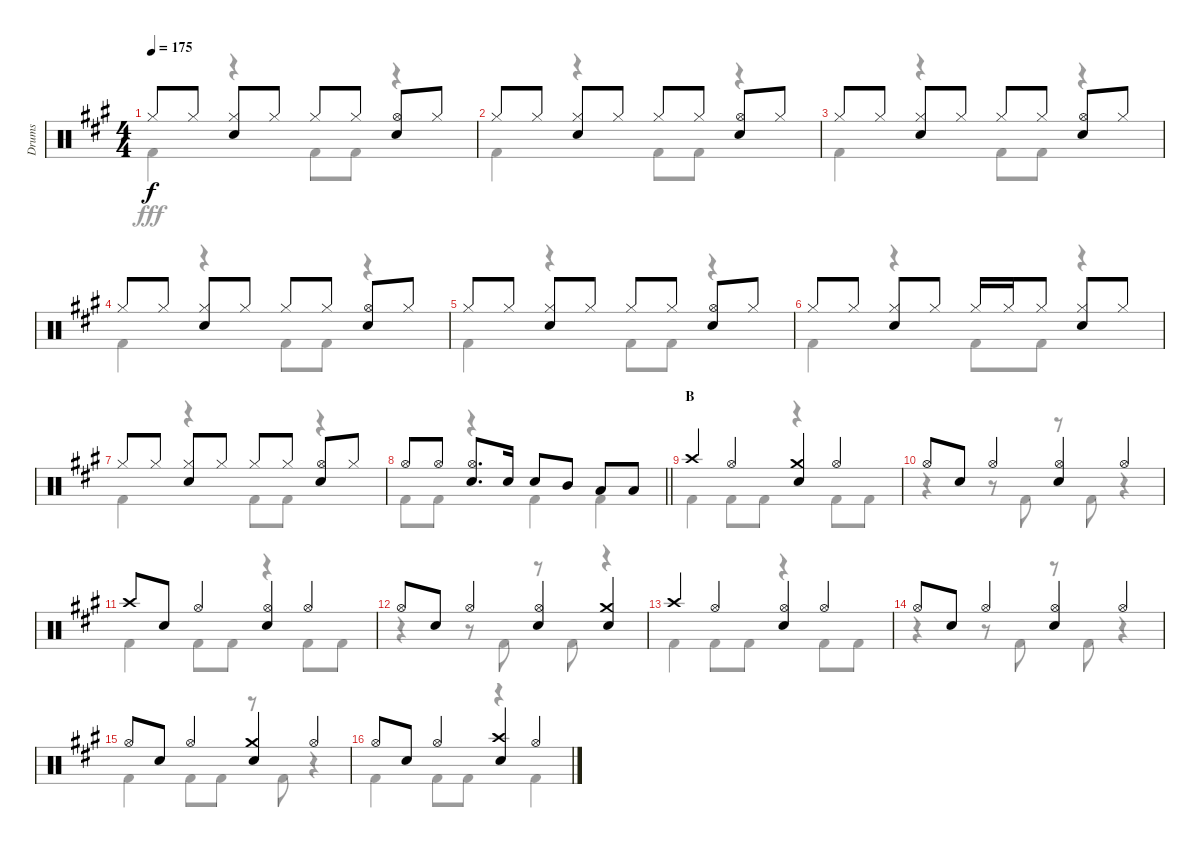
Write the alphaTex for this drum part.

\track ("Drums" "Drums") {instrument percussion}
\staff {score}
\articulation defaults
\voice
\ts (4 4)
\tempo 175
\clef neutral
\ks a "Hi-Hat (closed)".8{dy f} "Hi-Hat (closed)".8
("Hi-Hat (closed)" "Snare (hit) 2").8 "Hi-Hat (closed)".8 "Hi-Hat (closed)".8 "Hi-Hat (closed)".8 ("Hi-Hat (open)" "Snare (hit) 2").8 "Hi-Hat (closed)".8 |
"Hi-Hat (closed)".8 "Hi-Hat (closed)".8 ("Hi-Hat (closed)" "Snare (hit) 2").8 "Hi-Hat (closed)".8 "Hi-Hat (closed)".8 "Hi-Hat (closed)".8 ("Hi-Hat (open)" "Snare (hit) 2").8 "Hi-Hat (closed)".8 |
"Hi-Hat (closed)".8 "Hi-Hat (closed)".8 ("Hi-Hat (closed)" "Snare (hit) 2").8 "Hi-Hat (closed)".8 "Hi-Hat (closed)".8 "Hi-Hat (closed)".8 ("Hi-Hat (open)" "Snare (hit) 2").8 "Hi-Hat (closed)".8 |
"Hi-Hat (closed)".8 "Hi-Hat (closed)".8 ("Hi-Hat (closed)" "Snare (hit) 2").8 "Hi-Hat (closed)".8 "Hi-Hat (closed)".8 "Hi-Hat (closed)".8 ("Hi-Hat (open)" "Snare (hit) 2").8 "Hi-Hat (closed)".8 |
"Hi-Hat (closed)".8 "Hi-Hat (closed)".8 ("Hi-Hat (closed)" "Snare (hit) 2").8 "Hi-Hat (closed)".8 "Hi-Hat (closed)".8 "Hi-Hat (closed)".8 ("Hi-Hat (open)" "Snare (hit) 2").8 "Hi-Hat (closed)".8 |
"Hi-Hat (closed)".8 "Hi-Hat (closed)".8 ("Hi-Hat (closed)" "Snare (hit) 2").8 "Hi-Hat (closed)".8 "Hi-Hat (closed)".16 "Hi-Hat (closed)".16 "Hi-Hat (closed)".8 ("Hi-Hat (closed)" "Snare (hit) 2").8 "Hi-Hat (closed)".8 |
"Hi-Hat (closed)".8 "Hi-Hat (closed)".8 ("Hi-Hat (closed)" "Snare (hit) 2").8 "Hi-Hat (closed)".8 "Hi-Hat (closed)".8 "Hi-Hat (closed)".8 ("Hi-Hat (open)" "Snare (hit) 2").8 "Hi-Hat (closed)".8 |
\barLineRight lightlight "Hi-Hat (open)".8 "Hi-Hat (open)".8
("Hi-Hat (open)" "Snare (hit) 2").8{d} "Snare (hit) 2".16 "Snare (hit) 2".8 "Mid Tom (hit)".8 "Low Tom (hit)".8 "Low Tom (hit)".8 |
\section ("" "B")
"Crash high (hit)".4 "Hi-Hat (open)".4 ("Crash medium (hit)" "Snare (hit) 2").4 "Hi-Hat (open)".4 |
"Hi-Hat (open)".8 "Snare (hit) 2".8 "Hi-Hat (open)".4 ("Hi-Hat (open)" "Snare (hit) 2").4 "Hi-Hat (open)".4 |
"Crash high (hit)".8 "Snare (hit) 2".8 "Hi-Hat (open)".4 ("Hi-Hat (open)" "Snare (hit) 2").4 "Hi-Hat (open)".4 |
"Hi-Hat (open)".8 "Snare (hit) 2".8 "Hi-Hat (open)".4 ("Hi-Hat (open)" "Snare (hit) 2").4 ("Crash medium (hit)" "Snare (hit) 2").4 |
"Crash high (hit)".4 "Hi-Hat (open)".4 ("Hi-Hat (open)" "Snare (hit) 2").4 "Hi-Hat (open)".4 |
"Hi-Hat (open)".8 "Snare (hit) 2".8 "Hi-Hat (open)".4 ("Hi-Hat (open)" "Snare (hit) 2").4 "Hi-Hat (open)".4 |
"Hi-Hat (open)".8 "Snare (hit) 2".8 "Hi-Hat (open)".4 ("Crash medium (hit)" "Snare (hit) 2").4 "Hi-Hat (open)".4 |
"Hi-Hat (open)".8 "Snare (hit) 2".8 "Hi-Hat (open)".4 ("Crash high (hit)" "Snare (hit) 2").4 "Hi-Hat (open)".4
\voice
\clef neutral
\ottava regular
\simile none
\ks a "Kick (hit) 2".4{dy fff}
r.4 "Kick (hit) 2".8 "Kick (hit) 2".8 r.4 |
"Kick (hit) 2".4 r.4 "Kick (hit) 2".8 "Kick (hit) 2".8 r.4 |
"Kick (hit) 2".4 r.4 "Kick (hit) 2".8 "Kick (hit) 2".8 r.4 |
"Kick (hit) 2".4 r.4 "Kick (hit) 2".8 "Kick (hit) 2".8 r.4 |
"Kick (hit) 2".4 r.4 "Kick (hit) 2".8 "Kick (hit) 2".8 r.4 |
"Kick (hit) 2".4 r.4 "Kick (hit) 2".8 "Kick (hit) 2".8 r.4 |
"Kick (hit) 2".4 r.4 "Kick (hit) 2".8 "Kick (hit) 2".8 r.4 |
\barLineRight lightlight "Kick (hit) 2".8 "Kick (hit) 2".8
r.4 "Kick (hit) 2".4 "Kick (hit) 2".4 |
"Kick (hit) 2".4 "Kick (hit) 2".8 "Kick (hit) 2".8 r.4 "Kick (hit) 2".8 "Kick (hit) 2".8 |
r.4 r.8 "Kick (hit) 2".8 r.8 "Kick (hit) 2".8 r.4 |
"Kick (hit) 2".4 "Kick (hit) 2".8 "Kick (hit) 2".8 r.4 "Kick (hit) 2".8 "Kick (hit) 2".8 |
r.4 r.8 "Kick (hit) 2".8 r.8 "Kick (hit) 2".8 r.4 |
"Kick (hit) 2".4 "Kick (hit) 2".8 "Kick (hit) 2".8 r.4 "Kick (hit) 2".8 "Kick (hit) 2".8 |
r.4 r.8 "Kick (hit) 2".8 r.8 "Kick (hit) 2".8 r.4 |
"Kick (hit) 2".4 "Kick (hit) 2".8 "Kick (hit) 2".8 r.8 "Kick (hit) 2".8 r.4 |
"Kick (hit) 2".4 "Kick (hit) 2".8 "Kick (hit) 2".8 r.4 "Kick (hit) 2".4
